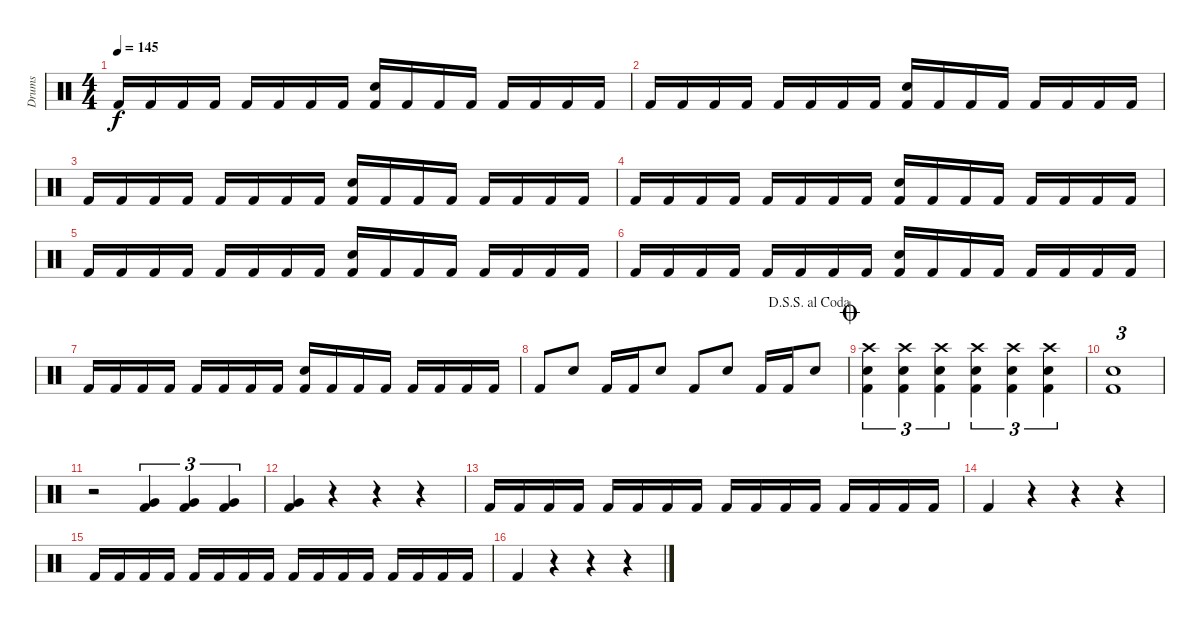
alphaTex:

\track ("Drums" "Drums") {instrument percussion}
\staff {score}
\articulation defaults
\ts (4 4)
\tempo 145
\clef neutral
\ks c "Kick (hit) 2".16{dy f} "Kick (hit) 2".16 "Kick (hit) 2".16 "Kick (hit) 2".16 "Kick (hit) 2".16 "Kick (hit) 2".16 "Kick (hit) 2".16 "Kick (hit) 2".16
("Snare (hit) 2" "Kick (hit) 2").16 "Kick (hit) 2".16 "Kick (hit) 2".16 "Kick (hit) 2".16 "Kick (hit) 2".16 "Kick (hit) 2".16 "Kick (hit) 2".16 "Kick (hit) 2".16 |
"Kick (hit) 2".16 "Kick (hit) 2".16 "Kick (hit) 2".16 "Kick (hit) 2".16 "Kick (hit) 2".16 "Kick (hit) 2".16 "Kick (hit) 2".16 "Kick (hit) 2".16 ("Snare (hit) 2" "Kick (hit) 2").16 "Kick (hit) 2".16 "Kick (hit) 2".16 "Kick (hit) 2".16 "Kick (hit) 2".16 "Kick (hit) 2".16 "Kick (hit) 2".16 "Kick (hit) 2".16 |
"Kick (hit) 2".16 "Kick (hit) 2".16 "Kick (hit) 2".16 "Kick (hit) 2".16 "Kick (hit) 2".16 "Kick (hit) 2".16 "Kick (hit) 2".16 "Kick (hit) 2".16 ("Snare (hit) 2" "Kick (hit) 2").16 "Kick (hit) 2".16 "Kick (hit) 2".16 "Kick (hit) 2".16 "Kick (hit) 2".16 "Kick (hit) 2".16 "Kick (hit) 2".16 "Kick (hit) 2".16 |
"Kick (hit) 2".16 "Kick (hit) 2".16 "Kick (hit) 2".16 "Kick (hit) 2".16 "Kick (hit) 2".16 "Kick (hit) 2".16 "Kick (hit) 2".16 "Kick (hit) 2".16 ("Snare (hit) 2" "Kick (hit) 2").16 "Kick (hit) 2".16 "Kick (hit) 2".16 "Kick (hit) 2".16 "Kick (hit) 2".16 "Kick (hit) 2".16 "Kick (hit) 2".16 "Kick (hit) 2".16 |
"Kick (hit) 2".16 "Kick (hit) 2".16 "Kick (hit) 2".16 "Kick (hit) 2".16 "Kick (hit) 2".16 "Kick (hit) 2".16 "Kick (hit) 2".16 "Kick (hit) 2".16 ("Snare (hit) 2" "Kick (hit) 2").16 "Kick (hit) 2".16 "Kick (hit) 2".16 "Kick (hit) 2".16 "Kick (hit) 2".16 "Kick (hit) 2".16 "Kick (hit) 2".16 "Kick (hit) 2".16 |
"Kick (hit) 2".16 "Kick (hit) 2".16 "Kick (hit) 2".16 "Kick (hit) 2".16 "Kick (hit) 2".16 "Kick (hit) 2".16 "Kick (hit) 2".16 "Kick (hit) 2".16 ("Snare (hit) 2" "Kick (hit) 2").16 "Kick (hit) 2".16 "Kick (hit) 2".16 "Kick (hit) 2".16 "Kick (hit) 2".16 "Kick (hit) 2".16 "Kick (hit) 2".16 "Kick (hit) 2".16 |
"Kick (hit) 2".16 "Kick (hit) 2".16 "Kick (hit) 2".16 "Kick (hit) 2".16 "Kick (hit) 2".16 "Kick (hit) 2".16 "Kick (hit) 2".16 "Kick (hit) 2".16 ("Snare (hit) 2" "Kick (hit) 2").16 "Kick (hit) 2".16 "Kick (hit) 2".16 "Kick (hit) 2".16 "Kick (hit) 2".16 "Kick (hit) 2".16 "Kick (hit) 2".16 "Kick (hit) 2".16 |
\jump dalsegnosegnoalcoda "Kick (hit) 2".8 "Snare (hit) 2".8 "Kick (hit) 2".16 "Kick (hit) 2".16 "Snare (hit) 2".8 "Kick (hit) 2".8 "Snare (hit) 2".8 "Kick (hit) 2".16 "Kick (hit) 2".16 "Snare (hit) 2".8
|
\jump coda
("Crash high (hit)" "Snare (hit) 2" "Kick (hit) 2").4{tu (3 2)} ("Crash high (hit)" "Snare (hit) 2" "Kick (hit) 2").4{tu (3 2)} ("Crash high (hit)" "Snare (hit) 2" "Kick (hit) 2").4{tu (3 2)} ("Crash high (hit)" "Snare (hit) 2" "Kick (hit) 2").4{tu (3 2)} ("Crash high (hit)" "Snare (hit) 2" "Kick (hit) 2").4{tu (3 2)} ("Crash high (hit)" "Snare (hit) 2" "Kick (hit) 2").4{tu (3 2)} |
("Snare (hit) 2" "Kick (hit) 2").1{tu (3 2)} |
r.2 ("Very Low Tom (hit)" "Kick (hit) 2").4{tu (3 2)} ("Very Low Tom (hit)" "Kick (hit) 2").4{tu (3 2)} ("Very Low Tom (hit)" "Kick (hit) 2").4{tu (3 2)} |
("Very Low Tom (hit)" "Kick (hit) 2").4 r.4 r.4 r.4 |
"Kick (hit) 2".16 "Kick (hit) 2".16 "Kick (hit) 2".16 "Kick (hit) 2".16 "Kick (hit) 2".16 "Kick (hit) 2".16 "Kick (hit) 2".16 "Kick (hit) 2".16 "Kick (hit) 2".16 "Kick (hit) 2".16 "Kick (hit) 2".16 "Kick (hit) 2".16 "Kick (hit) 2".16 "Kick (hit) 2".16 "Kick (hit) 2".16 "Kick (hit) 2".16 |
"Kick (hit) 2".4 r.4 r.4 r.4 |
"Kick (hit) 2".16 "Kick (hit) 2".16 "Kick (hit) 2".16 "Kick (hit) 2".16 "Kick (hit) 2".16 "Kick (hit) 2".16 "Kick (hit) 2".16 "Kick (hit) 2".16 "Kick (hit) 2".16 "Kick (hit) 2".16 "Kick (hit) 2".16 "Kick (hit) 2".16 "Kick (hit) 2".16 "Kick (hit) 2".16 "Kick (hit) 2".16 "Kick (hit) 2".16 |
"Kick (hit) 2".4 r.4 r.4 r.4
